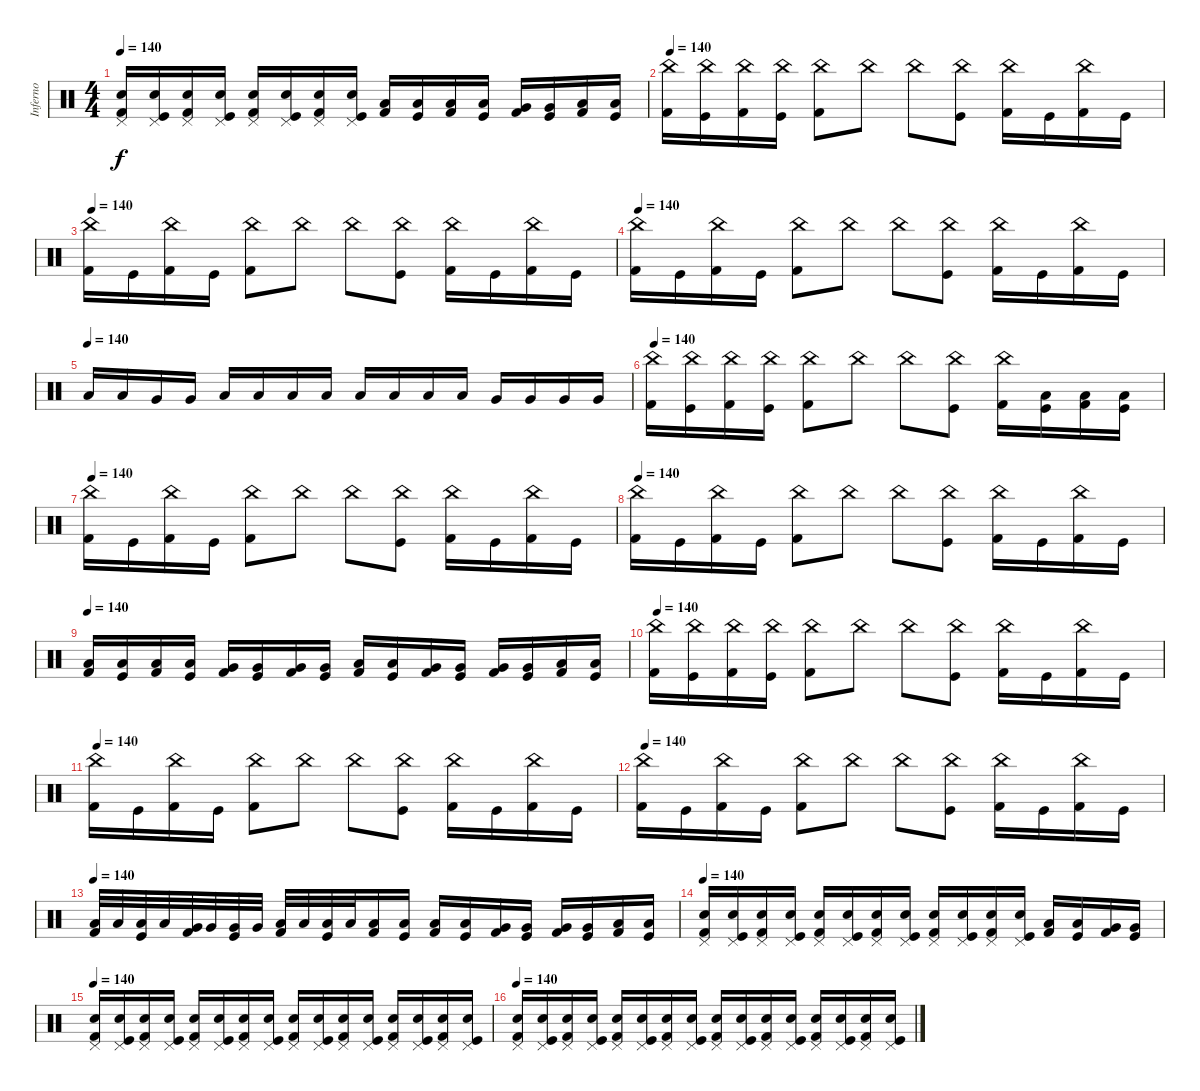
\track ("Inferno" "Inferno") {instrument percussion}
\staff {score}
\articulation defaults
\ts (4 4)
\tempo 140
\clef neutral
\ks c
("Pedal Hi-Hat (hit)" "Electric Snare (hit)" "Kick (hit) 2").16{dy f} ("Pedal Hi-Hat (hit)" "Electric Snare (hit)" "Kick (hit)").16 ("Pedal Hi-Hat (hit)" "Electric Snare (hit)" "Kick (hit) 2").16 ("Pedal Hi-Hat (hit)" "Electric Snare (hit)" "Kick (hit)").16 ("Pedal Hi-Hat (hit)" "Electric Snare (hit)" "Kick (hit) 2").16 ("Pedal Hi-Hat (hit)" "Electric Snare (hit)" "Kick (hit)").16 ("Pedal Hi-Hat (hit)" "Electric Snare (hit)" "Kick (hit) 2").16 ("Pedal Hi-Hat (hit)" "Electric Snare (hit)" "Kick (hit)").16 ("Low Tom (hit)" "Kick (hit) 2").16 ("Low Tom (hit)" "Kick (hit)").16 ("Low Tom (hit)" "Kick (hit) 2").16 ("Low Tom (hit)" "Kick (hit)").16 ("Very Low Tom (hit)" "Kick (hit) 2").16 ("Very Low Tom (hit)" "Kick (hit)").16 ("Low Floor Tom (hit)" "Kick (hit) 2").16 ("Low Floor Tom (hit)" "Kick (hit)").16 |
\tempo 140
("China (hit)" "Kick (hit) 2").16 ("China (hit)" "Kick (hit)").16 ("China (hit)" "Kick (hit) 2").16 ("China (hit)" "Kick (hit)").16 ("China (hit)" "Kick (hit) 2").8 "China (hit)".8 "China (hit)".8 ("China (hit)" "Kick (hit)").8 ("China (hit)" "Kick (hit) 2").16 "Kick (hit)".16 ("China (hit)" "Kick (hit) 2").16 "Kick (hit)".16 |
\tempo 140
("China (hit)" "Kick (hit) 2").16 "Kick (hit)".16 ("China (hit)" "Kick (hit) 2").16 "Kick (hit)".16 ("China (hit)" "Kick (hit) 2").8 "China (hit)".8 "China (hit)".8 ("China (hit)" "Kick (hit)").8 ("China (hit)" "Kick (hit) 2").16 "Kick (hit)".16 ("China (hit)" "Kick (hit) 2").16 "Kick (hit)".16 |
\tempo 140
("China (hit)" "Kick (hit) 2").16 "Kick (hit)".16 ("China (hit)" "Kick (hit) 2").16 "Kick (hit)".16 ("China (hit)" "Kick (hit) 2").8 "China (hit)".8 "China (hit)".8 ("China (hit)" "Kick (hit)").8 ("China (hit)" "Kick (hit) 2").16 "Kick (hit)".16 ("China (hit)" "Kick (hit) 2").16 "Kick (hit)".16 |
\tempo (140)
"Low Tom (hit)".16 "Low Tom (hit)".16 "Very Low Tom (hit)".16 "Very Low Tom (hit)".16 "Low Floor Tom (hit)".16 "Low Floor Tom (hit)".16 "Low Floor Tom (hit)".16 "Low Floor Tom (hit)".16 "Low Tom (hit)".16 "Low Tom (hit)".16 "Low Tom (hit)".16 "Low Tom (hit)".16 "Very Low Tom (hit)".16 "Very Low Tom (hit)".16 "Very Low Tom (hit)".16 "Very Low Tom (hit)".16 |
\tempo 140
("China (hit)" "Kick (hit) 2").16 ("China (hit)" "Kick (hit)").16 ("China (hit)" "Kick (hit) 2").16 ("China (hit)" "Kick (hit)").16 ("China (hit)" "Kick (hit) 2").8 "China (hit)".8 "China (hit)".8 ("China (hit)" "Kick (hit)").8 ("China (hit)" "Kick (hit) 2").16 ("Low Tom (hit)" "Kick (hit)").16 ("Low Tom (hit)" "Kick (hit) 2").16 ("Low Tom (hit)" "Kick (hit)").16 |
\tempo 140
("China (hit)" "Kick (hit) 2").16 "Kick (hit)".16 ("China (hit)" "Kick (hit) 2").16 "Kick (hit)".16 ("China (hit)" "Kick (hit) 2").8 "China (hit)".8 "China (hit)".8 ("China (hit)" "Kick (hit)").8 ("China (hit)" "Kick (hit) 2").16 "Kick (hit)".16 ("China (hit)" "Kick (hit) 2").16 "Kick (hit)".16 |
\tempo 140
("China (hit)" "Kick (hit) 2").16 "Kick (hit)".16 ("China (hit)" "Kick (hit) 2").16 "Kick (hit)".16 ("China (hit)" "Kick (hit) 2").8 "China (hit)".8 "China (hit)".8 ("China (hit)" "Kick (hit)").8 ("China (hit)" "Kick (hit) 2").16 "Kick (hit)".16 ("China (hit)" "Kick (hit) 2").16 "Kick (hit)".16 |
\tempo 140
("Low Tom (hit)" "Kick (hit) 2").16 ("Low Tom (hit)" "Kick (hit)").16 ("Low Tom (hit)" "Kick (hit) 2").16 ("Low Tom (hit)" "Kick (hit)").16 ("Very Low Tom (hit)" "Kick (hit) 2").16 ("Very Low Tom (hit)" "Kick (hit)").16 ("Very Low Tom (hit)" "Kick (hit) 2").16 ("Very Low Tom (hit)" "Kick (hit)").16 ("Low Tom (hit)" "Kick (hit) 2").16 ("Low Tom (hit)" "Kick (hit)").16 ("Very Low Tom (hit)" "Kick (hit) 2").16 ("Very Low Tom (hit)" "Kick (hit)").16 ("Very Low Tom (hit)" "Kick (hit) 2").16 ("Very Low Tom (hit)" "Kick (hit)").16 ("Low Floor Tom (hit)" "Kick (hit) 2").16 ("Low Floor Tom (hit)" "Kick (hit)").16 |
\tempo 140
("China (hit)" "Kick (hit) 2").16 ("China (hit)" "Kick (hit)").16 ("China (hit)" "Kick (hit) 2").16 ("China (hit)" "Kick (hit)").16 ("China (hit)" "Kick (hit) 2").8 "China (hit)".8 "China (hit)".8 ("China (hit)" "Kick (hit)").8 ("China (hit)" "Kick (hit) 2").16 "Kick (hit)".16 ("China (hit)" "Kick (hit) 2").16 "Kick (hit)".16 |
\tempo 140
("China (hit)" "Kick (hit) 2").16 "Kick (hit)".16 ("China (hit)" "Kick (hit) 2").16 "Kick (hit)".16 ("China (hit)" "Kick (hit) 2").8 "China (hit)".8 "China (hit)".8 ("China (hit)" "Kick (hit)").8 ("China (hit)" "Kick (hit) 2").16 "Kick (hit)".16 ("China (hit)" "Kick (hit) 2").16 "Kick (hit)".16 |
\tempo 140
("China (hit)" "Kick (hit) 2").16 "Kick (hit)".16 ("China (hit)" "Kick (hit) 2").16 "Kick (hit)".16 ("China (hit)" "Kick (hit) 2").8 "China (hit)".8 "China (hit)".8 ("China (hit)" "Kick (hit)").8 ("China (hit)" "Kick (hit) 2").16 "Kick (hit)".16 ("China (hit)" "Kick (hit) 2").16 "Kick (hit)".16 |
\tempo 140
("Low Tom (hit)" "Kick (hit) 2").32 "Low Tom (hit)".32 ("Low Tom (hit)" "Kick (hit)").32 "Low Tom (hit)".32 ("Very Low Tom (hit)" "Kick (hit) 2").32 "Very Low Tom (hit)".32 ("Very Low Tom (hit)" "Kick (hit)").32 "Very Low Tom (hit)".32 ("Low Floor Tom (hit)" "Kick (hit) 2").32 "Low Floor Tom (hit)".32 ("Low Floor Tom (hit)" "Kick (hit)").32 "Low Floor Tom (hit)".32 ("Low Tom (hit)" "Kick (hit) 2").16 ("Low Tom (hit)" "Kick (hit)").16 ("Low Tom (hit)" "Kick (hit) 2").16 ("Low Tom (hit)" "Kick (hit)").16 ("Very Low Tom (hit)" "Kick (hit) 2").16 ("Very Low Tom (hit)" "Kick (hit)").16 ("Very Low Tom (hit)" "Kick (hit) 2").16 ("Very Low Tom (hit)" "Kick (hit)").16 ("Low Floor Tom (hit)" "Kick (hit) 2").16 ("Low Floor Tom (hit)" "Kick (hit)").16 |
\tempo 140
("Pedal Hi-Hat (hit)" "Electric Snare (hit)" "Kick (hit) 2").16 ("Pedal Hi-Hat (hit)" "Electric Snare (hit)" "Kick (hit)").16 ("Pedal Hi-Hat (hit)" "Electric Snare (hit)" "Kick (hit) 2").16 ("Pedal Hi-Hat (hit)" "Electric Snare (hit)" "Kick (hit)").16 ("Pedal Hi-Hat (hit)" "Electric Snare (hit)" "Kick (hit) 2").16 ("Pedal Hi-Hat (hit)" "Electric Snare (hit)" "Kick (hit)").16 ("Pedal Hi-Hat (hit)" "Electric Snare (hit)" "Kick (hit) 2").16 ("Pedal Hi-Hat (hit)" "Electric Snare (hit)" "Kick (hit)").16 ("Pedal Hi-Hat (hit)" "Electric Snare (hit)" "Kick (hit) 2").16 ("Pedal Hi-Hat (hit)" "Electric Snare (hit)" "Kick (hit)").16 ("Pedal Hi-Hat (hit)" "Electric Snare (hit)" "Kick (hit) 2").16 ("Pedal Hi-Hat (hit)" "Electric Snare (hit)" "Kick (hit)").16 ("Low Tom (hit)" "Kick (hit) 2").16 ("Low Tom (hit)" "Kick (hit)").16 ("Very Low Tom (hit)" "Kick (hit) 2").16 ("Very Low Tom (hit)" "Kick (hit)").16 |
\tempo 140
("Pedal Hi-Hat (hit)" "Electric Snare (hit)" "Kick (hit) 2").16 ("Pedal Hi-Hat (hit)" "Electric Snare (hit)" "Kick (hit)").16 ("Pedal Hi-Hat (hit)" "Electric Snare (hit)" "Kick (hit) 2").16 ("Pedal Hi-Hat (hit)" "Electric Snare (hit)" "Kick (hit)").16 ("Pedal Hi-Hat (hit)" "Electric Snare (hit)" "Kick (hit) 2").16 ("Pedal Hi-Hat (hit)" "Electric Snare (hit)" "Kick (hit)").16 ("Pedal Hi-Hat (hit)" "Electric Snare (hit)" "Kick (hit) 2").16 ("Pedal Hi-Hat (hit)" "Electric Snare (hit)" "Kick (hit)").16 ("Pedal Hi-Hat (hit)" "Electric Snare (hit)" "Kick (hit) 2").16 ("Pedal Hi-Hat (hit)" "Electric Snare (hit)" "Kick (hit)").16 ("Pedal Hi-Hat (hit)" "Electric Snare (hit)" "Kick (hit) 2").16 ("Pedal Hi-Hat (hit)" "Electric Snare (hit)" "Kick (hit)").16 ("Pedal Hi-Hat (hit)" "Electric Snare (hit)" "Kick (hit) 2").16 ("Pedal Hi-Hat (hit)" "Electric Snare (hit)" "Kick (hit)").16 ("Pedal Hi-Hat (hit)" "Electric Snare (hit)" "Kick (hit) 2").16 ("Pedal Hi-Hat (hit)" "Electric Snare (hit)" "Kick (hit)").16 |
\tempo 140
("Pedal Hi-Hat (hit)" "Electric Snare (hit)" "Kick (hit) 2").16 ("Pedal Hi-Hat (hit)" "Electric Snare (hit)" "Kick (hit)").16 ("Pedal Hi-Hat (hit)" "Electric Snare (hit)" "Kick (hit) 2").16 ("Pedal Hi-Hat (hit)" "Electric Snare (hit)" "Kick (hit)").16 ("Pedal Hi-Hat (hit)" "Electric Snare (hit)" "Kick (hit) 2").16 ("Pedal Hi-Hat (hit)" "Electric Snare (hit)" "Kick (hit)").16 ("Pedal Hi-Hat (hit)" "Electric Snare (hit)" "Kick (hit) 2").16 ("Pedal Hi-Hat (hit)" "Electric Snare (hit)" "Kick (hit)").16 ("Pedal Hi-Hat (hit)" "Electric Snare (hit)" "Kick (hit) 2").16 ("Pedal Hi-Hat (hit)" "Electric Snare (hit)" "Kick (hit)").16 ("Pedal Hi-Hat (hit)" "Electric Snare (hit)" "Kick (hit) 2").16 ("Pedal Hi-Hat (hit)" "Electric Snare (hit)" "Kick (hit)").16 ("Pedal Hi-Hat (hit)" "Electric Snare (hit)" "Kick (hit) 2").16 ("Pedal Hi-Hat (hit)" "Electric Snare (hit)" "Kick (hit)").16 ("Pedal Hi-Hat (hit)" "Electric Snare (hit)" "Kick (hit) 2").16 ("Pedal Hi-Hat (hit)" "Electric Snare (hit)" "Kick (hit)").16
